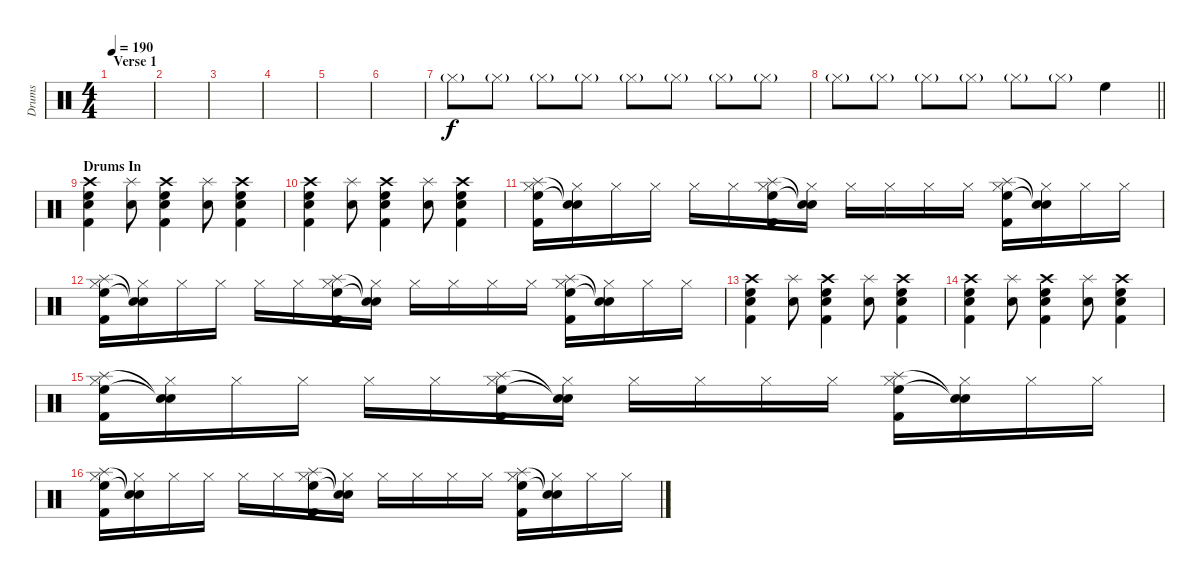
\track ("Drums" "Drums") {instrument percussion}
\staff {score}
\articulation defaults
\ts (4 4)
\section ("" "Verse 1")
\tempo 190
\clef neutral
\ks c
|
|
|
|
|
|
"Hi-Hat (closed)"{g}.8 "Hi-Hat (closed)"{g}.8 "Hi-Hat (closed)"{g}.8 "Hi-Hat (closed)"{g}.8 "Hi-Hat (closed)"{g}.8 "Hi-Hat (closed)"{g}.8 "Hi-Hat (closed)"{g}.8 "Hi-Hat (closed)"{g}.8 |
\barLineRight lightlight "Hi-Hat (closed)"{g}.8 "Hi-Hat (closed)"{g}.8 "Hi-Hat (closed)"{g}.8 "Hi-Hat (closed)"{g}.8 "Hi-Hat (closed)"{g}.8 "Hi-Hat (closed)"{g}.8 "High Floor Tom (hit)".4{dy f}
|
\section ("" "Drums In")
("Crash high (hit)" "High Floor Tom (hit)" "Snare (hit) 2" "Kick (hit) 2").4 ("Splash (hit)" "Electric Snare (hit)").8 ("Crash high (hit)" "High Floor Tom (hit)" "Snare (hit) 2" "Kick (hit) 2").4 ("Splash (hit)" "Electric Snare (hit)").8 ("Crash high (hit)" "High Floor Tom (hit)" "Snare (hit) 2" "Kick (hit) 2").4 |
("Crash high (hit)" "High Floor Tom (hit)" "Snare (hit) 2" "Kick (hit) 2").4 ("Splash (hit)" "Electric Snare (hit)").8 ("Crash high (hit)" "High Floor Tom (hit)" "Snare (hit) 2" "Kick (hit) 2").4 ("Splash (hit)" "Electric Snare (hit)").8 ("Crash high (hit)" "High Floor Tom (hit)" "Snare (hit) 2" "Kick (hit) 2").4 |
("Hi-Hat (closed)" "Splash (hit)" "High Floor Tom (hit)" "Kick (hit) 2").16 ("Hi-Hat (closed)" "Snare (hit)"{t} "Snare (hit)"{t}).16 "Hi-Hat (closed)".16 "Hi-Hat (closed)".16 "Hi-Hat (closed)".16 "Hi-Hat (closed)".16 ("Hi-Hat (closed)" "Splash (hit)" "High Floor Tom (hit)" "Kick (hit) 2").16 ("Hi-Hat (closed)" "Snare (hit)"{t} "Snare (hit)"{t}).16 "Hi-Hat (closed)".16 "Hi-Hat (closed)".16 "Hi-Hat (closed)".16 "Hi-Hat (closed)".16 ("Hi-Hat (closed)" "Splash (hit)" "High Floor Tom (hit)" "Kick (hit) 2").16 ("Hi-Hat (closed)" "Snare (hit)"{t} "Snare (hit)"{t}).16 "Hi-Hat (closed)".16 "Hi-Hat (closed)".16 |
("Hi-Hat (closed)" "Splash (hit)" "High Floor Tom (hit)" "Kick (hit) 2").16 ("Hi-Hat (closed)" "Snare (hit)"{t} "Snare (hit)"{t}).16 "Hi-Hat (closed)".16 "Hi-Hat (closed)".16 "Hi-Hat (closed)".16 "Hi-Hat (closed)".16 ("Hi-Hat (closed)" "Splash (hit)" "High Floor Tom (hit)" "Kick (hit) 2").16 ("Hi-Hat (closed)" "Snare (hit)"{t} "Snare (hit)"{t}).16 "Hi-Hat (closed)".16 "Hi-Hat (closed)".16 "Hi-Hat (closed)".16 "Hi-Hat (closed)".16 ("Hi-Hat (closed)" "Splash (hit)" "High Floor Tom (hit)" "Kick (hit) 2").16 ("Hi-Hat (closed)" "Snare (hit)"{t} "Snare (hit)"{t}).16 "Hi-Hat (closed)".16 "Hi-Hat (closed)".16 |
("Crash high (hit)" "High Floor Tom (hit)" "Snare (hit) 2" "Kick (hit) 2").4 ("Splash (hit)" "Electric Snare (hit)").8 ("Crash high (hit)" "High Floor Tom (hit)" "Snare (hit) 2" "Kick (hit) 2").4 ("Splash (hit)" "Electric Snare (hit)").8 ("Crash high (hit)" "High Floor Tom (hit)" "Snare (hit) 2" "Kick (hit) 2").4 |
("Crash high (hit)" "High Floor Tom (hit)" "Snare (hit) 2" "Kick (hit) 2").4 ("Splash (hit)" "Electric Snare (hit)").8 ("Crash high (hit)" "High Floor Tom (hit)" "Snare (hit) 2" "Kick (hit) 2").4 ("Splash (hit)" "Electric Snare (hit)").8 ("Crash high (hit)" "High Floor Tom (hit)" "Snare (hit) 2" "Kick (hit) 2").4 |
("Hi-Hat (closed)" "Splash (hit)" "High Floor Tom (hit)" "Kick (hit) 2").16 ("Hi-Hat (closed)" "Snare (hit)"{t} "Snare (hit)"{t}).16 "Hi-Hat (closed)".16 "Hi-Hat (closed)".16 "Hi-Hat (closed)".16 "Hi-Hat (closed)".16 ("Hi-Hat (closed)" "Splash (hit)" "High Floor Tom (hit)" "Kick (hit) 2").16 ("Hi-Hat (closed)" "Snare (hit)"{t} "Snare (hit)"{t}).16 "Hi-Hat (closed)".16 "Hi-Hat (closed)".16 "Hi-Hat (closed)".16 "Hi-Hat (closed)".16 ("Hi-Hat (closed)" "Splash (hit)" "High Floor Tom (hit)" "Kick (hit) 2").16 ("Hi-Hat (closed)" "Snare (hit)"{t} "Snare (hit)"{t}).16 "Hi-Hat (closed)".16 "Hi-Hat (closed)".16 |
("Hi-Hat (closed)" "Splash (hit)" "High Floor Tom (hit)" "Kick (hit) 2").16 ("Hi-Hat (closed)" "Snare (hit)"{t} "Snare (hit)"{t}).16 "Hi-Hat (closed)".16 "Hi-Hat (closed)".16 "Hi-Hat (closed)".16 "Hi-Hat (closed)".16 ("Hi-Hat (closed)" "Splash (hit)" "High Floor Tom (hit)" "Kick (hit) 2").16 ("Hi-Hat (closed)" "Snare (hit)"{t} "Snare (hit)"{t}).16 "Hi-Hat (closed)".16 "Hi-Hat (closed)".16 "Hi-Hat (closed)".16 "Hi-Hat (closed)".16 ("Hi-Hat (closed)" "Splash (hit)" "High Floor Tom (hit)" "Kick (hit) 2").16 ("Hi-Hat (closed)" "Snare (hit)"{t} "Snare (hit)"{t}).16 "Hi-Hat (closed)".16 "Hi-Hat (closed)".16
